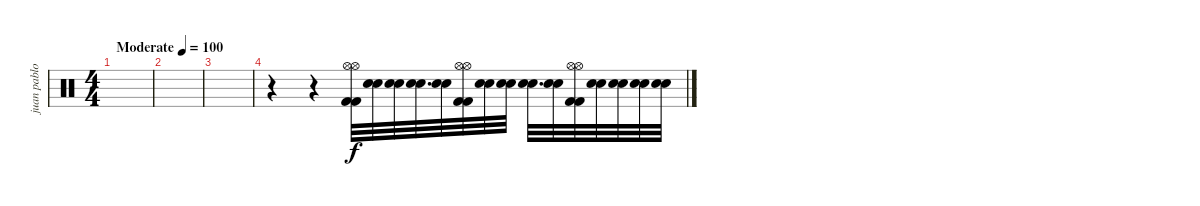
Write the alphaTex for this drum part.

\track ("juan pablo" "juan pablo") {instrument percussion}
\staff {score}
\articulation defaults
\ts (4 4)
\tempo (100 "Moderate")
\clef neutral
\ks c
|
|
|
r.4 r.4 ("Hi-Hat (open)" "Hi-Hat (open)" "Kick (hit) 2" "Kick (hit) 2").32 ("Electric Snare (hit)" "Electric Snare (hit)").32 ("Electric Snare (hit)" "Electric Snare (hit)").32 ("Electric Snare (hit)" "Electric Snare (hit)").32{d} ("Electric Snare (hit)" "Electric Snare (hit)").32 ("Hi-Hat (open)" "Hi-Hat (open)" "Kick (hit) 2" "Kick (hit) 2").32 ("Electric Snare (hit)" "Electric Snare (hit)").32 ("Electric Snare (hit)" "Electric Snare (hit)").32 ("Electric Snare (hit)" "Electric Snare (hit)").32{d} ("Electric Snare (hit)" "Electric Snare (hit)").32 ("Hi-Hat (open)" "Hi-Hat (open)" "Kick (hit) 2" "Kick (hit) 2").32 ("Electric Snare (hit)" "Electric Snare (hit)").32 ("Electric Snare (hit)" "Electric Snare (hit)").32 ("Electric Snare (hit)" "Electric Snare (hit)").32 ("Electric Snare (hit)" "Electric Snare (hit)").32
